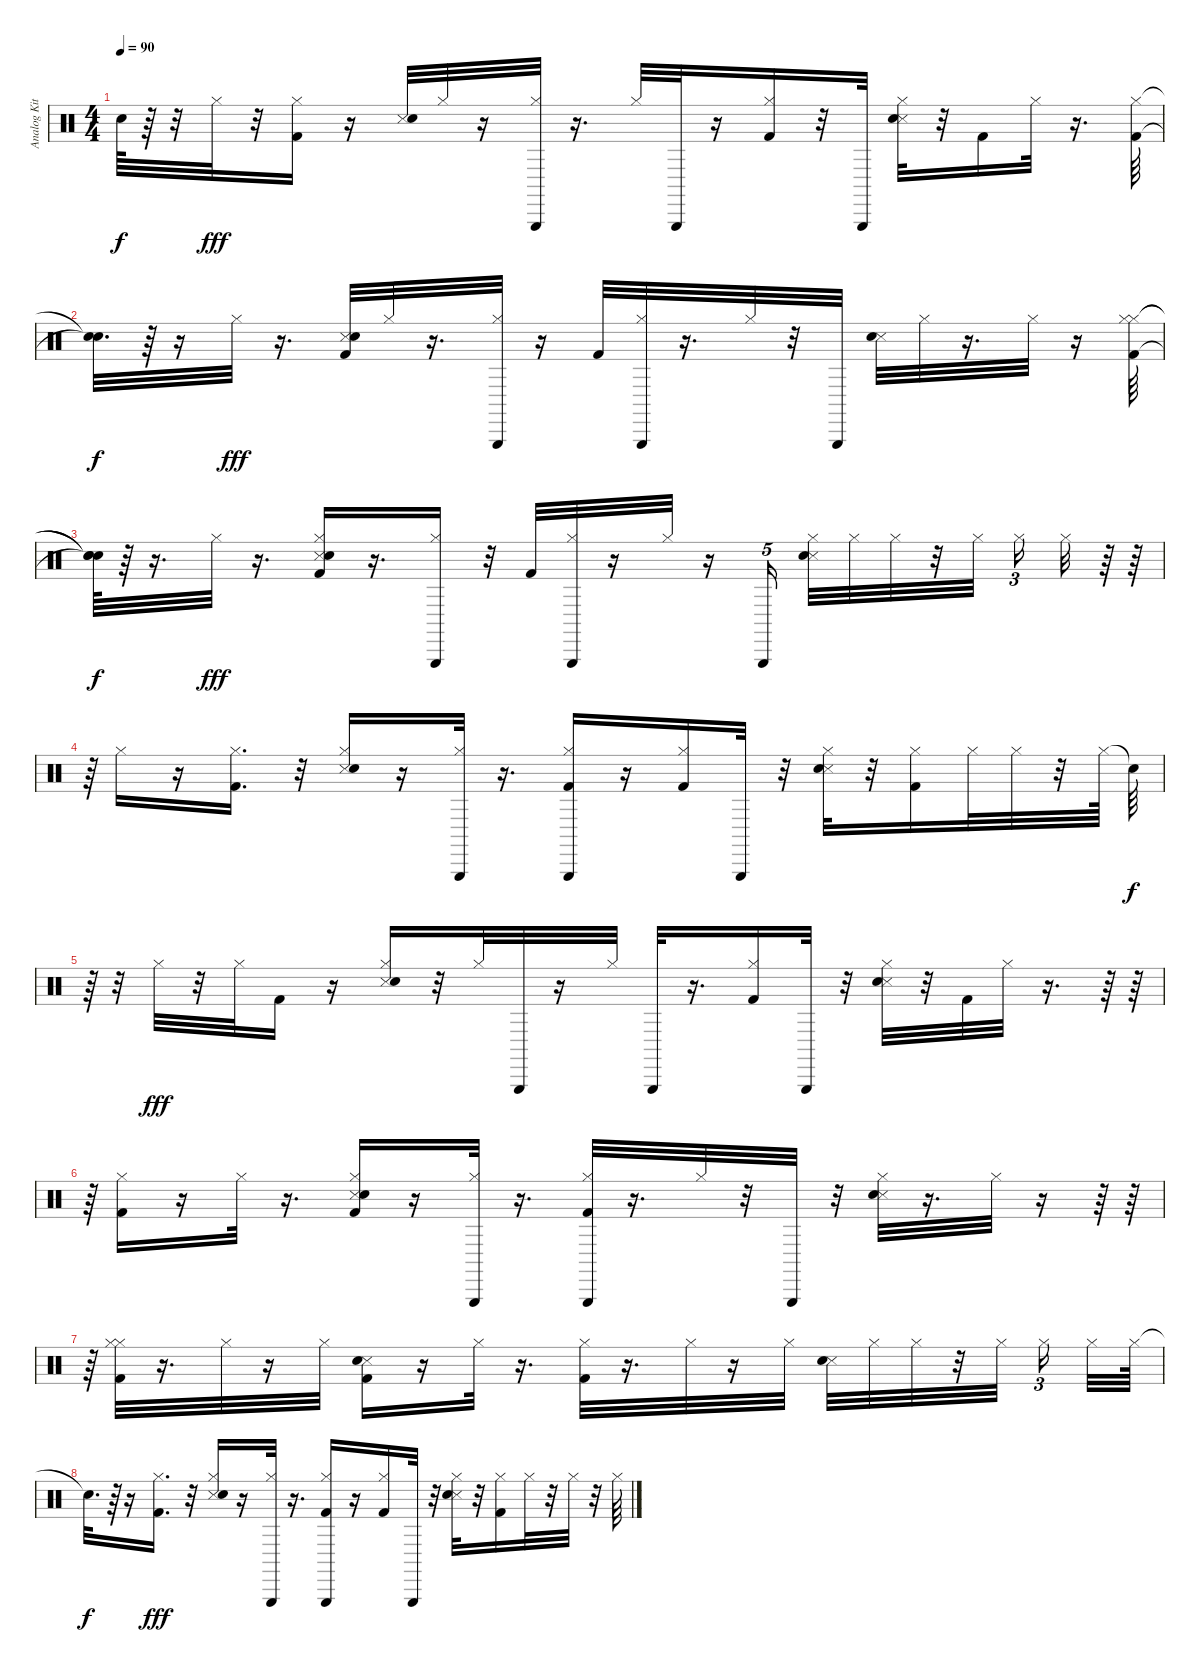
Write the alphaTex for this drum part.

\track ("Analog Kit" "Analog Kit") {instrument percussion}
\staff {score}
\articulation defaults
\ts (4 4)
\tempo 90
\clef neutral
\ks c "Snare (hit)"{t}.64{dy f}
r.64 r.32 "Hi-Hat (closed)".32{dy fff} r.32 ("Hi-Hat (closed)" "Kick (hit) 2").16 r.16 ("Snare (side stick) 3" "Electric Snare (hit)").32 "Hi-Hat (closed)".32 r.16 ("Hi-Hat (closed)" "Triangle (hit)").32 r.16{d} "Hi-Hat (closed)".32 "Triangle (hit)".32 r.16 ("Kick (hit) 2" "Hi-Hat (closed)").16 r.32 "Triangle (hit)".32 ("Snare (side stick) 3" "Electric Snare (hit)" "Hi-Hat (closed)").32 r.32 "Kick (hit) 2".16 "Hi-Hat (closed)".32 r.16{d} ("Hi-Hat (closed)" "Kick (hit) 2").64 |
("Snare (hit)"{t} "Snare (hit)"{t}).32{d dy f} r.64 r.16 "Hi-Hat (closed)".32{dy fff} r.16{d} ("Snare (side stick) 3" "Kick (hit) 2" "Electric Snare (hit)").32 "Hi-Hat (closed)".32 r.16{d} ("Triangle (hit)" "Hi-Hat (closed)").32 r.16 "Kick (hit) 2".32 ("Hi-Hat (closed)" "Triangle (hit)").32 r.16{d} "Hi-Hat (closed)".32 r.32 "Triangle (hit)".32 ("Snare (side stick) 3" "Electric Snare (hit)").32 "Hi-Hat (closed)".32 r.16{d} "Hi-Hat (closed)".32 r.16 ("Hi-Hat (closed)" "Hi-Hat (closed)" "Kick (hit) 2").64 |
("Snare (hit)"{t} "Snare (hit)"{t} "Snare (hit)"{t}).64{dy f} r.64 r.16{d} "Hi-Hat (closed)".32{dy fff} r.16{d} ("Hi-Hat (closed)" "Snare (side stick) 3" "Kick (hit) 2" "Electric Snare (hit)").16 r.16{d} ("Hi-Hat (closed)" "Triangle (hit)").16 r.32 "Kick (hit) 2".32 ("Hi-Hat (closed)" "Triangle (hit)").32 r.16 "Hi-Hat (closed)".32 r.16 "Triangle (hit)".16{tu (5 4)} ("Hi-Hat (closed)" "Snare (side stick) 3" "Electric Snare (hit)").32 "Hi-Hat (closed)".32 "Hi-Hat (closed)".32 r.32 "Hi-Hat (closed)".32{beam splitsecondary} "Hi-Hat (closed)".16{tu (3 2)} "Hi-Hat (closed)".32 r.64 r.64 |
r.64 "Hi-Hat (closed)".16 r.16 ("Kick (hit) 2" "Hi-Hat (closed)").16{d} r.32 ("Snare (side stick) 3" "Electric Snare (hit)" "Hi-Hat (closed)").16 r.16 ("Hi-Hat (closed)" "Triangle (hit)").32 r.16{d} ("Hi-Hat (closed)" "Kick (hit) 2" "Triangle (hit)").16 r.16 ("Kick (hit) 2" "Hi-Hat (closed)").16 "Triangle (hit)".32 r.32 ("Snare (side stick) 3" "Electric Snare (hit)" "Hi-Hat (closed)").32 r.32 ("Kick (hit) 2" "Hi-Hat (closed)").16 "Hi-Hat (closed)".32 "Hi-Hat (closed)".32 r.32 "Hi-Hat (closed)".64 "Snare (hit)"{t}.64{dy f} |
r.64 r.32 "Hi-Hat (closed)".32{dy fff} r.32 "Hi-Hat (closed)".32 "Kick (hit) 2".16 r.16 ("Snare (side stick) 3" "Electric Snare (hit)" "Hi-Hat (closed)").16 r.32 "Hi-Hat (closed)".32 "Triangle (hit)".32 r.16 "Hi-Hat (closed)".32 "Triangle (hit)".32 r.16{d} ("Kick (hit) 2" "Hi-Hat (closed)").16 "Triangle (hit)".32 r.32 ("Snare (side stick) 3" "Electric Snare (hit)" "Hi-Hat (closed)").32 r.32 "Kick (hit) 2".32 "Hi-Hat (closed)".32 r.16{d} r.64 r.64 |
r.64 ("Hi-Hat (closed)" "Kick (hit) 2").16 r.16 "Hi-Hat (closed)".32 r.16{d} ("Snare (side stick) 3" "Kick (hit) 2" "Electric Snare (hit)" "Hi-Hat (closed)").16 r.16 ("Triangle (hit)" "Hi-Hat (closed)").32 r.16{d} ("Kick (hit) 2" "Hi-Hat (closed)" "Triangle (hit)").32 r.16{d} "Hi-Hat (closed)".32 r.32 "Triangle (hit)".32 r.32 ("Snare (side stick) 3" "Electric Snare (hit)" "Hi-Hat (closed)").32 r.16{d} "Hi-Hat (closed)".32 r.16 r.64 r.64 |
r.64 ("Hi-Hat (closed)" "Hi-Hat (closed)" "Kick (hit) 2").32 r.16{d} "Hi-Hat (closed)".32 r.16 "Hi-Hat (closed)".32 ("Snare (side stick) 3" "Kick (hit) 2" "Electric Snare (hit)").16 r.16 "Hi-Hat (closed)".32 r.16{d} ("Kick (hit) 2" "Hi-Hat (closed)").32 r.16{d} "Hi-Hat (closed)".32 r.16 "Hi-Hat (closed)".32 ("Snare (side stick) 3" "Electric Snare (hit)").32 "Hi-Hat (closed)".32 "Hi-Hat (closed)".32 r.32 "Hi-Hat (closed)".32{beam splitsecondary} "Hi-Hat (closed)".16{tu (3 2) beam splitsecondary} "Hi-Hat (closed)".32 "Hi-Hat (closed)".64 |
"Snare (hit)"{t}.32{d dy f} r.64 r.16 ("Kick (hit) 2" "Hi-Hat (closed)").16{d dy fff} r.32 ("Snare (side stick) 3" "Electric Snare (hit)" "Hi-Hat (closed)").16 r.16 ("Hi-Hat (closed)" "Triangle (hit)").32 r.16{d} ("Hi-Hat (closed)" "Kick (hit) 2" "Triangle (hit)").16 r.16 ("Kick (hit) 2" "Hi-Hat (closed)").16 "Triangle (hit)".32 r.32 ("Snare (side stick) 3" "Electric Snare (hit)" "Hi-Hat (closed)").32 r.32 ("Kick (hit) 2" "Hi-Hat (closed)").16 "Hi-Hat (closed)".32 r.32 "Hi-Hat (closed)".32 r.32 "Hi-Hat (closed)".64
